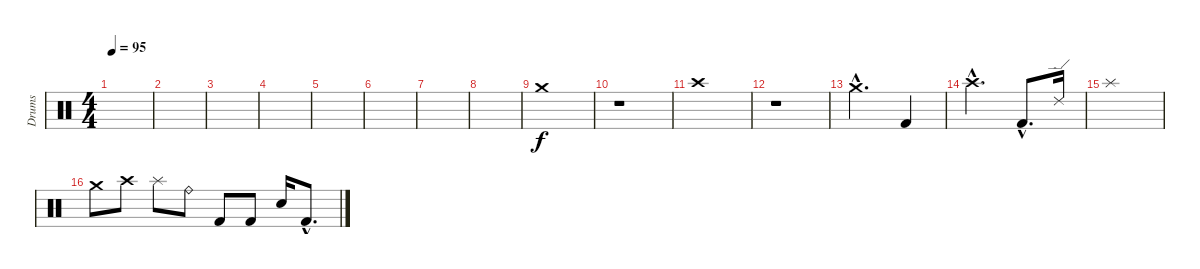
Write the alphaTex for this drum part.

\track ("Drums" "Drums") {instrument percussion}
\staff {score}
\articulation defaults
\ts (4 4)
\tempo 95
\clef neutral
\ks c
|
|
|
|
|
|
|
|
"Crash medium (hit)".1 |
r.1 |
"Crash high (hit)".1 |
r.1 |
"Crash medium (hit)"{hac}.2{d} "Kick (hit) 2".4 |
"Crash high (hit)"{hac}.2{d} "Kick (hit) 2"{hac}.8{d} "Ride (edge) 2".16 |
"Splash (hit)".1 |
"Crash medium (hit)".8 "Crash high (hit)".8 "Splash (hit)".8 "Ride (bell)".8 "Kick (hit) 2".8 "Kick (hit) 2".8 "Snare (hit) 2".16 "Kick (hit) 2"{hac}.8{d}
